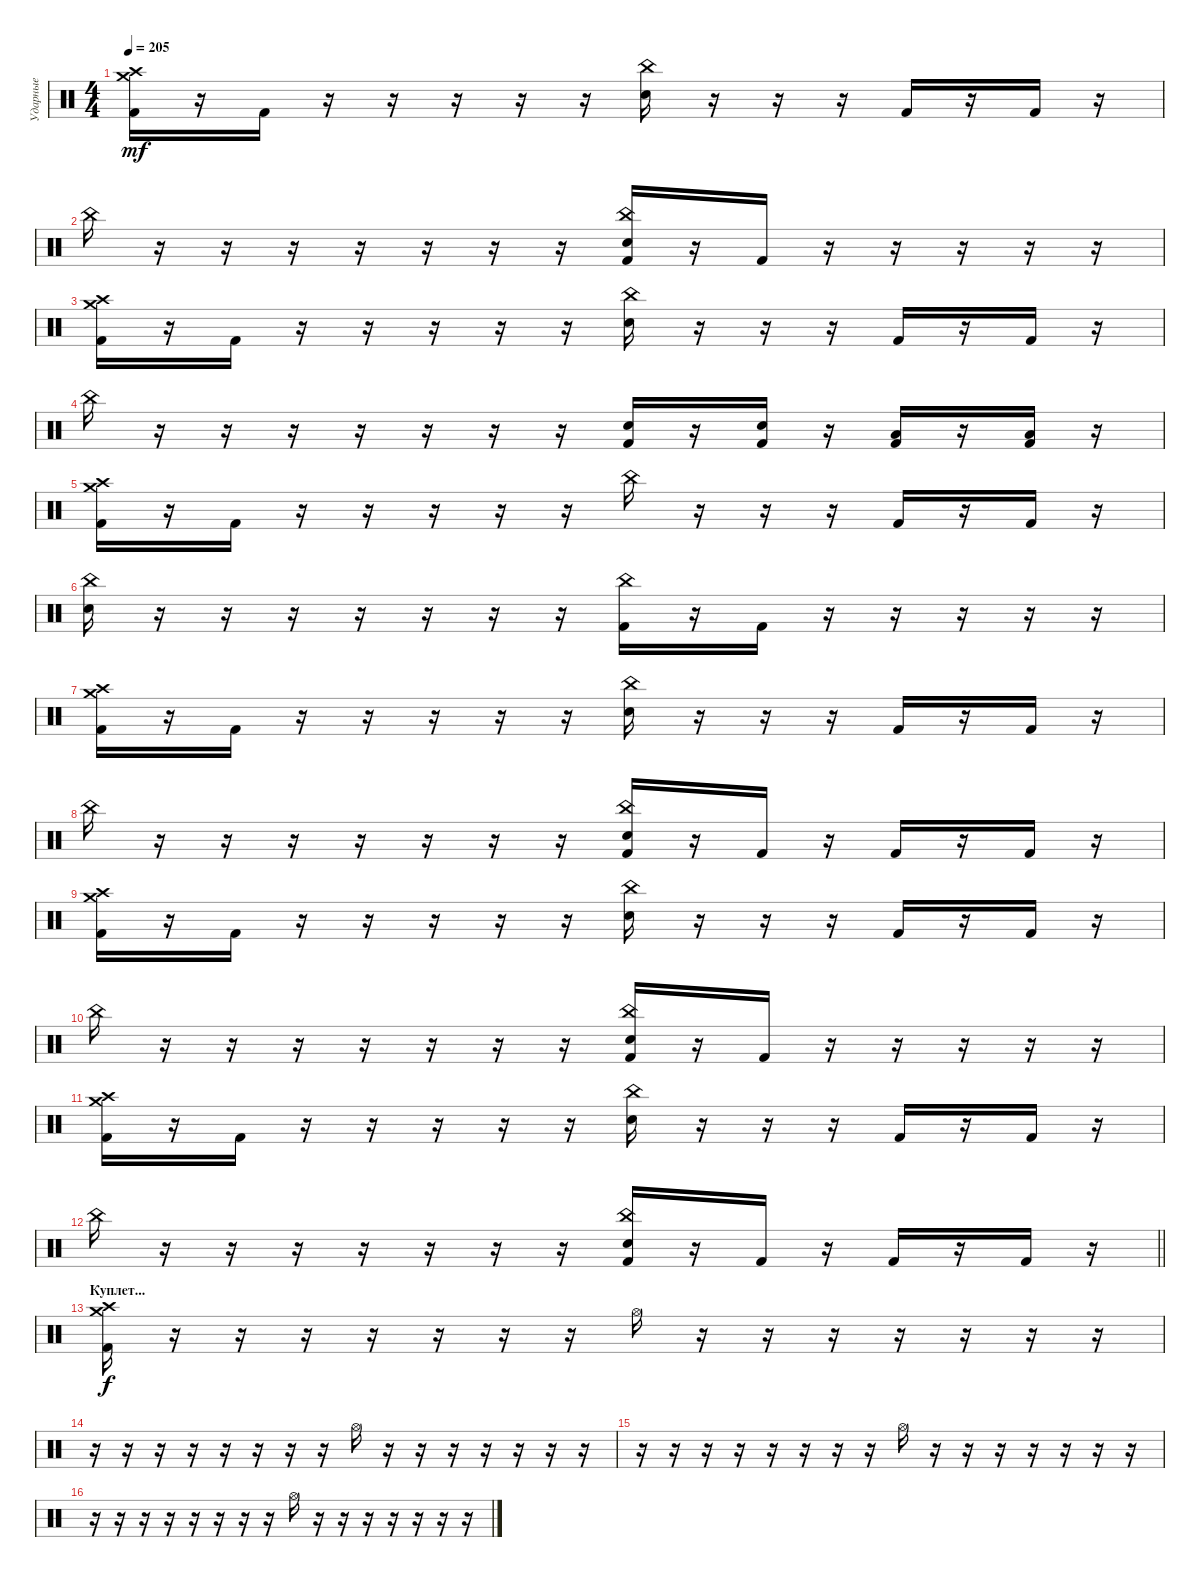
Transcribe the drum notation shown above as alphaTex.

\track ("Ударные" "Ударные") {instrument percussion}
\staff {score}
\articulation defaults
\ts (4 4)
\tempo 205
\clef neutral
\ks c
("Crash high (hit)" "Crash medium (hit)" "Kick (hit) 2").16{dy mf} r.16 "Kick (hit) 2".16 r.16 r.16 r.16 r.16 r.16 ("China (hit)" "Electric Snare (hit)").16 r.16 r.16 r.16 "Kick (hit) 2".16 r.16 "Kick (hit) 2".16 r.16 |
"China (hit)".16 r.16 r.16 r.16 r.16 r.16 r.16 r.16 ("China (hit)" "Electric Snare (hit)" "Kick (hit) 2").16 r.16 "Kick (hit) 2".16 r.16 r.16 r.16 r.16 r.16 |
("Crash high (hit)" "Crash medium (hit)" "Kick (hit) 2").16 r.16 "Kick (hit) 2".16 r.16 r.16 r.16 r.16 r.16 ("China (hit)" "Electric Snare (hit)").16 r.16 r.16 r.16 "Kick (hit) 2".16 r.16 "Kick (hit) 2".16 r.16 |
"China (hit)".16 r.16 r.16 r.16 r.16 r.16 r.16 r.16 ("Electric Snare (hit)" "Kick (hit) 2").16 r.16 ("Electric Snare (hit)" "Kick (hit) 2").16 r.16 ("Low Tom (hit)" "Kick (hit) 2").16 r.16 ("Low Tom (hit)" "Kick (hit) 2").16 r.16 |
("Crash high (hit)" "Crash medium (hit)" "Kick (hit) 2").16 r.16 "Kick (hit) 2".16 r.16 r.16 r.16 r.16 r.16 "China (hit)".16 r.16 r.16 r.16 "Kick (hit) 2".16 r.16 "Kick (hit) 2".16 r.16 |
("China (hit)" "Electric Snare (hit)").16 r.16 r.16 r.16 r.16 r.16 r.16 r.16 ("China (hit)" "Kick (hit) 2").16 r.16 "Kick (hit) 2".16 r.16 r.16 r.16 r.16 r.16 |
("Crash high (hit)" "Crash medium (hit)" "Kick (hit) 2").16 r.16 "Kick (hit) 2".16 r.16 r.16 r.16 r.16 r.16 ("China (hit)" "Electric Snare (hit)").16 r.16 r.16 r.16 "Kick (hit) 2".16 r.16 "Kick (hit) 2".16 r.16 |
"China (hit)".16 r.16 r.16 r.16 r.16 r.16 r.16 r.16 ("China (hit)" "Electric Snare (hit)" "Kick (hit) 2").16 r.16 "Kick (hit) 2".16 r.16 "Kick (hit) 2".16 r.16 "Kick (hit) 2".16 r.16 |
("Crash high (hit)" "Crash medium (hit)" "Kick (hit) 2").16 r.16 "Kick (hit) 2".16 r.16 r.16 r.16 r.16 r.16 ("China (hit)" "Electric Snare (hit)").16 r.16 r.16 r.16 "Kick (hit) 2".16 r.16 "Kick (hit) 2".16 r.16 |
"China (hit)".16 r.16 r.16 r.16 r.16 r.16 r.16 r.16 ("China (hit)" "Electric Snare (hit)" "Kick (hit) 2").16 r.16 "Kick (hit) 2".16 r.16 r.16 r.16 r.16 r.16 |
("Crash high (hit)" "Crash medium (hit)" "Kick (hit) 2").16 r.16 "Kick (hit) 2".16 r.16 r.16 r.16 r.16 r.16 ("China (hit)" "Electric Snare (hit)").16 r.16 r.16 r.16 "Kick (hit) 2".16 r.16 "Kick (hit) 2".16 r.16 |
\barLineRight lightlight "China (hit)".16
r.16 r.16 r.16 r.16 r.16 r.16 r.16 ("China (hit)" "Electric Snare (hit)" "Kick (hit) 2").16 r.16 "Kick (hit) 2".16 r.16 "Kick (hit) 2".16 r.16 "Kick (hit) 2".16 r.16 |
\section ("" "Куплет...")
("Crash high (hit)" "Crash medium (hit)" "Kick (hit) 2").16{dy f} r.16 r.16 r.16 r.16 r.16 r.16 r.16 "Hi-Hat (open)".16 r.16 r.16 r.16 r.16 r.16 r.16 r.16 |
r.16 r.16 r.16 r.16 r.16 r.16 r.16 r.16 "Hi-Hat (open)".16 r.16 r.16 r.16 r.16 r.16 r.16 r.16 |
r.16 r.16 r.16 r.16 r.16 r.16 r.16 r.16 "Hi-Hat (open)".16 r.16 r.16 r.16 r.16 r.16 r.16 r.16 |
r.16 r.16 r.16 r.16 r.16 r.16 r.16 r.16 "Hi-Hat (open)".16 r.16 r.16 r.16 r.16 r.16 r.16 r.16
